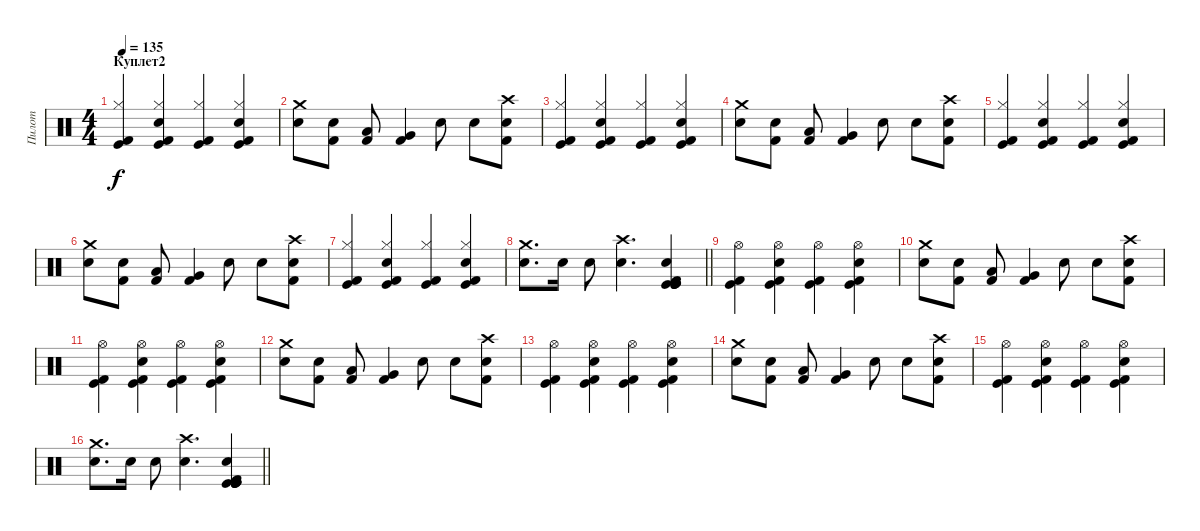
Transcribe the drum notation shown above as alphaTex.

\track ("Пилот" "Пилот") {instrument percussion}
\staff {score}
\articulation defaults
\ts (4 4)
\section ("" "Куплет2")
\tempo 135
\clef neutral
\ks c
("Kick (hit) 2" "Hi-Hat (closed)" "Kick (hit)").4{dy f} ("Kick (hit) 2" "Snare (hit) 2" "Hi-Hat (closed)" "Kick (hit)").4 ("Kick (hit) 2" "Hi-Hat (closed)" "Kick (hit)").4 ("Kick (hit) 2" "Snare (hit) 2" "Hi-Hat (closed)" "Kick (hit)").4 |
("Crash medium (hit)" "Snare (hit) 2").8 ("Kick (hit) 2" "Snare (hit) 2").8 ("Kick (hit) 2" "Low Tom (hit)").8 ("Kick (hit) 2" "Very Low Tom (hit)").4 "Snare (hit) 2".8 "Snare (hit) 2".8 ("Kick (hit) 2" "Crash high (hit)" "Snare (hit) 2").8 |
("Kick (hit) 2" "Hi-Hat (closed)" "Kick (hit)").4 ("Kick (hit) 2" "Snare (hit) 2" "Hi-Hat (closed)" "Kick (hit)").4 ("Kick (hit) 2" "Hi-Hat (closed)" "Kick (hit)").4 ("Kick (hit) 2" "Snare (hit) 2" "Hi-Hat (closed)" "Kick (hit)").4 |
("Crash medium (hit)" "Snare (hit) 2").8 ("Kick (hit) 2" "Snare (hit) 2").8 ("Kick (hit) 2" "Low Tom (hit)").8 ("Kick (hit) 2" "Very Low Tom (hit)").4 "Snare (hit) 2".8 "Snare (hit) 2".8 ("Kick (hit) 2" "Crash high (hit)" "Snare (hit) 2").8 |
("Kick (hit) 2" "Hi-Hat (closed)" "Kick (hit)").4 ("Kick (hit) 2" "Snare (hit) 2" "Hi-Hat (closed)" "Kick (hit)").4 ("Kick (hit) 2" "Hi-Hat (closed)" "Kick (hit)").4 ("Kick (hit) 2" "Snare (hit) 2" "Hi-Hat (closed)" "Kick (hit)").4 |
("Crash medium (hit)" "Snare (hit) 2").8 ("Kick (hit) 2" "Snare (hit) 2").8 ("Kick (hit) 2" "Low Tom (hit)").8 ("Kick (hit) 2" "Very Low Tom (hit)").4 "Snare (hit) 2".8 "Snare (hit) 2".8 ("Kick (hit) 2" "Crash high (hit)" "Snare (hit) 2").8 |
("Kick (hit) 2" "Hi-Hat (closed)" "Kick (hit)").4 ("Kick (hit) 2" "Snare (hit) 2" "Hi-Hat (closed)" "Kick (hit)").4 ("Kick (hit) 2" "Hi-Hat (closed)" "Kick (hit)").4 ("Kick (hit) 2" "Snare (hit) 2" "Hi-Hat (closed)" "Kick (hit)").4 |
\barLineRight lightlight
("Snare (hit) 2" "Crash medium (hit)").8{d} "Snare (hit) 2".16 "Snare (hit) 2".8 ("Crash high (hit)" "Snare (hit) 2").4{d} ("Kick (hit) 2" "Snare (hit) 2" "Kick (hit)" "Kick (hit)" "Kick (hit)" "Kick (hit)").4 |
("Kick (hit) 2" "Hi-Hat (open)" "Kick (hit)").4 ("Kick (hit) 2" "Snare (hit) 2" "Hi-Hat (open)" "Kick (hit)").4 ("Kick (hit) 2" "Hi-Hat (open)" "Kick (hit)").4 ("Kick (hit) 2" "Snare (hit) 2" "Hi-Hat (open)" "Kick (hit)").4 |
("Crash medium (hit)" "Snare (hit) 2").8 ("Kick (hit) 2" "Snare (hit) 2").8 ("Kick (hit) 2" "Low Tom (hit)").8 ("Kick (hit) 2" "Very Low Tom (hit)").4 "Snare (hit) 2".8 "Snare (hit) 2".8 ("Kick (hit) 2" "Crash high (hit)" "Snare (hit) 2").8 |
("Kick (hit) 2" "Hi-Hat (open)" "Kick (hit)").4 ("Kick (hit) 2" "Snare (hit) 2" "Hi-Hat (open)" "Kick (hit)").4 ("Kick (hit) 2" "Hi-Hat (open)" "Kick (hit)").4 ("Kick (hit) 2" "Snare (hit) 2" "Hi-Hat (open)" "Kick (hit)").4 |
("Crash medium (hit)" "Snare (hit) 2").8 ("Kick (hit) 2" "Snare (hit) 2").8 ("Kick (hit) 2" "Low Tom (hit)").8 ("Kick (hit) 2" "Very Low Tom (hit)").4 "Snare (hit) 2".8 "Snare (hit) 2".8 ("Kick (hit) 2" "Crash high (hit)" "Snare (hit) 2").8 |
("Kick (hit) 2" "Hi-Hat (open)" "Kick (hit)").4 ("Kick (hit) 2" "Snare (hit) 2" "Hi-Hat (open)" "Kick (hit)").4 ("Kick (hit) 2" "Hi-Hat (open)" "Kick (hit)").4 ("Kick (hit) 2" "Snare (hit) 2" "Hi-Hat (open)" "Kick (hit)").4 |
("Crash medium (hit)" "Snare (hit) 2").8 ("Kick (hit) 2" "Snare (hit) 2").8 ("Kick (hit) 2" "Low Tom (hit)").8 ("Kick (hit) 2" "Very Low Tom (hit)").4 "Snare (hit) 2".8 "Snare (hit) 2".8 ("Kick (hit) 2" "Crash high (hit)" "Snare (hit) 2").8 |
("Kick (hit) 2" "Hi-Hat (open)" "Kick (hit)").4 ("Kick (hit) 2" "Snare (hit) 2" "Hi-Hat (open)" "Kick (hit)").4 ("Kick (hit) 2" "Hi-Hat (open)" "Kick (hit)").4 ("Kick (hit) 2" "Snare (hit) 2" "Hi-Hat (open)" "Kick (hit)").4 |
\barLineRight lightlight
("Snare (hit) 2" "Crash medium (hit)").8{d} "Snare (hit) 2".16 "Snare (hit) 2".8 ("Crash high (hit)" "Snare (hit) 2").4{d} ("Kick (hit) 2" "Snare (hit) 2" "Kick (hit)" "Kick (hit)" "Kick (hit)" "Kick (hit)").4
